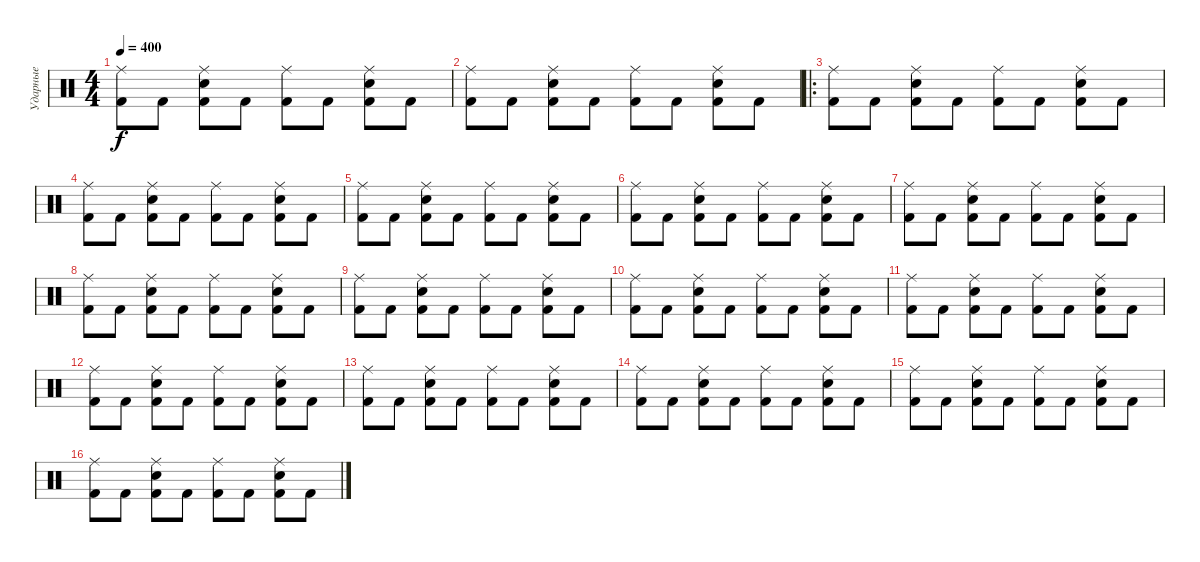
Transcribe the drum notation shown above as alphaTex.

\track ("Ударные" "Ударные") {instrument percussion}
\staff {score}
\articulation defaults
\ts (4 4)
\tempo 400
\clef neutral
\ks c
("Ride (middle)" "Kick (hit) 2").8{dy f} "Kick (hit) 2".8 ("Ride (middle)" "Snare (hit) 2" "Kick (hit) 2").8 "Kick (hit) 2".8 ("Ride (middle)" "Kick (hit) 2").8 "Kick (hit) 2".8 ("Ride (middle)" "Snare (hit) 2" "Kick (hit) 2").8 "Kick (hit) 2".8 |
("Ride (middle)" "Kick (hit) 2").8 "Kick (hit) 2".8 ("Ride (middle)" "Snare (hit) 2" "Kick (hit) 2").8 "Kick (hit) 2".8 ("Ride (middle)" "Kick (hit) 2").8 "Kick (hit) 2".8 ("Ride (middle)" "Snare (hit) 2" "Kick (hit) 2").8 "Kick (hit) 2".8 |
\ro
("Ride (middle)" "Kick (hit) 2").8 "Kick (hit) 2".8 ("Ride (middle)" "Snare (hit) 2" "Kick (hit) 2").8 "Kick (hit) 2".8 ("Ride (middle)" "Kick (hit) 2").8 "Kick (hit) 2".8 ("Ride (middle)" "Snare (hit) 2" "Kick (hit) 2").8 "Kick (hit) 2".8 |
("Ride (middle)" "Kick (hit) 2").8 "Kick (hit) 2".8 ("Ride (middle)" "Snare (hit) 2" "Kick (hit) 2").8 "Kick (hit) 2".8 ("Ride (middle)" "Kick (hit) 2").8 "Kick (hit) 2".8 ("Ride (middle)" "Snare (hit) 2" "Kick (hit) 2").8 "Kick (hit) 2".8 |
("Ride (middle)" "Kick (hit) 2").8 "Kick (hit) 2".8 ("Ride (middle)" "Snare (hit) 2" "Kick (hit) 2").8 "Kick (hit) 2".8 ("Ride (middle)" "Kick (hit) 2").8 "Kick (hit) 2".8 ("Ride (middle)" "Snare (hit) 2" "Kick (hit) 2").8 "Kick (hit) 2".8 |
("Ride (middle)" "Kick (hit) 2").8 "Kick (hit) 2".8 ("Ride (middle)" "Snare (hit) 2" "Kick (hit) 2").8 "Kick (hit) 2".8 ("Ride (middle)" "Kick (hit) 2").8 "Kick (hit) 2".8 ("Ride (middle)" "Snare (hit) 2" "Kick (hit) 2").8 "Kick (hit) 2".8 |
("Ride (middle)" "Kick (hit) 2").8 "Kick (hit) 2".8 ("Ride (middle)" "Snare (hit) 2" "Kick (hit) 2").8 "Kick (hit) 2".8 ("Ride (middle)" "Kick (hit) 2").8 "Kick (hit) 2".8 ("Ride (middle)" "Snare (hit) 2" "Kick (hit) 2").8 "Kick (hit) 2".8 |
("Ride (middle)" "Kick (hit) 2").8 "Kick (hit) 2".8 ("Ride (middle)" "Snare (hit) 2" "Kick (hit) 2").8 "Kick (hit) 2".8 ("Ride (middle)" "Kick (hit) 2").8 "Kick (hit) 2".8 ("Ride (middle)" "Snare (hit) 2" "Kick (hit) 2").8 "Kick (hit) 2".8 |
("Ride (middle)" "Kick (hit) 2").8 "Kick (hit) 2".8 ("Ride (middle)" "Snare (hit) 2" "Kick (hit) 2").8 "Kick (hit) 2".8 ("Ride (middle)" "Kick (hit) 2").8 "Kick (hit) 2".8 ("Ride (middle)" "Snare (hit) 2" "Kick (hit) 2").8 "Kick (hit) 2".8 |
("Ride (middle)" "Kick (hit) 2").8 "Kick (hit) 2".8 ("Ride (middle)" "Snare (hit) 2" "Kick (hit) 2").8 "Kick (hit) 2".8 ("Ride (middle)" "Kick (hit) 2").8 "Kick (hit) 2".8 ("Ride (middle)" "Snare (hit) 2" "Kick (hit) 2").8 "Kick (hit) 2".8 |
("Ride (middle)" "Kick (hit) 2").8 "Kick (hit) 2".8 ("Ride (middle)" "Snare (hit) 2" "Kick (hit) 2").8 "Kick (hit) 2".8 ("Ride (middle)" "Kick (hit) 2").8 "Kick (hit) 2".8 ("Ride (middle)" "Snare (hit) 2" "Kick (hit) 2").8 "Kick (hit) 2".8 |
("Ride (middle)" "Kick (hit) 2").8 "Kick (hit) 2".8 ("Ride (middle)" "Snare (hit) 2" "Kick (hit) 2").8 "Kick (hit) 2".8 ("Ride (middle)" "Kick (hit) 2").8 "Kick (hit) 2".8 ("Ride (middle)" "Snare (hit) 2" "Kick (hit) 2").8 "Kick (hit) 2".8 |
("Ride (middle)" "Kick (hit) 2").8 "Kick (hit) 2".8 ("Ride (middle)" "Snare (hit) 2" "Kick (hit) 2").8 "Kick (hit) 2".8 ("Ride (middle)" "Kick (hit) 2").8 "Kick (hit) 2".8 ("Ride (middle)" "Snare (hit) 2" "Kick (hit) 2").8 "Kick (hit) 2".8 |
("Ride (middle)" "Kick (hit) 2").8 "Kick (hit) 2".8 ("Ride (middle)" "Snare (hit) 2" "Kick (hit) 2").8 "Kick (hit) 2".8 ("Ride (middle)" "Kick (hit) 2").8 "Kick (hit) 2".8 ("Ride (middle)" "Snare (hit) 2" "Kick (hit) 2").8 "Kick (hit) 2".8 |
("Ride (middle)" "Kick (hit) 2").8 "Kick (hit) 2".8 ("Ride (middle)" "Snare (hit) 2" "Kick (hit) 2").8 "Kick (hit) 2".8 ("Ride (middle)" "Kick (hit) 2").8 "Kick (hit) 2".8 ("Ride (middle)" "Snare (hit) 2" "Kick (hit) 2").8 "Kick (hit) 2".8 |
("Ride (middle)" "Kick (hit) 2").8 "Kick (hit) 2".8 ("Ride (middle)" "Snare (hit) 2" "Kick (hit) 2").8 "Kick (hit) 2".8 ("Ride (middle)" "Kick (hit) 2").8 "Kick (hit) 2".8 ("Ride (middle)" "Snare (hit) 2" "Kick (hit) 2").8 "Kick (hit) 2".8
